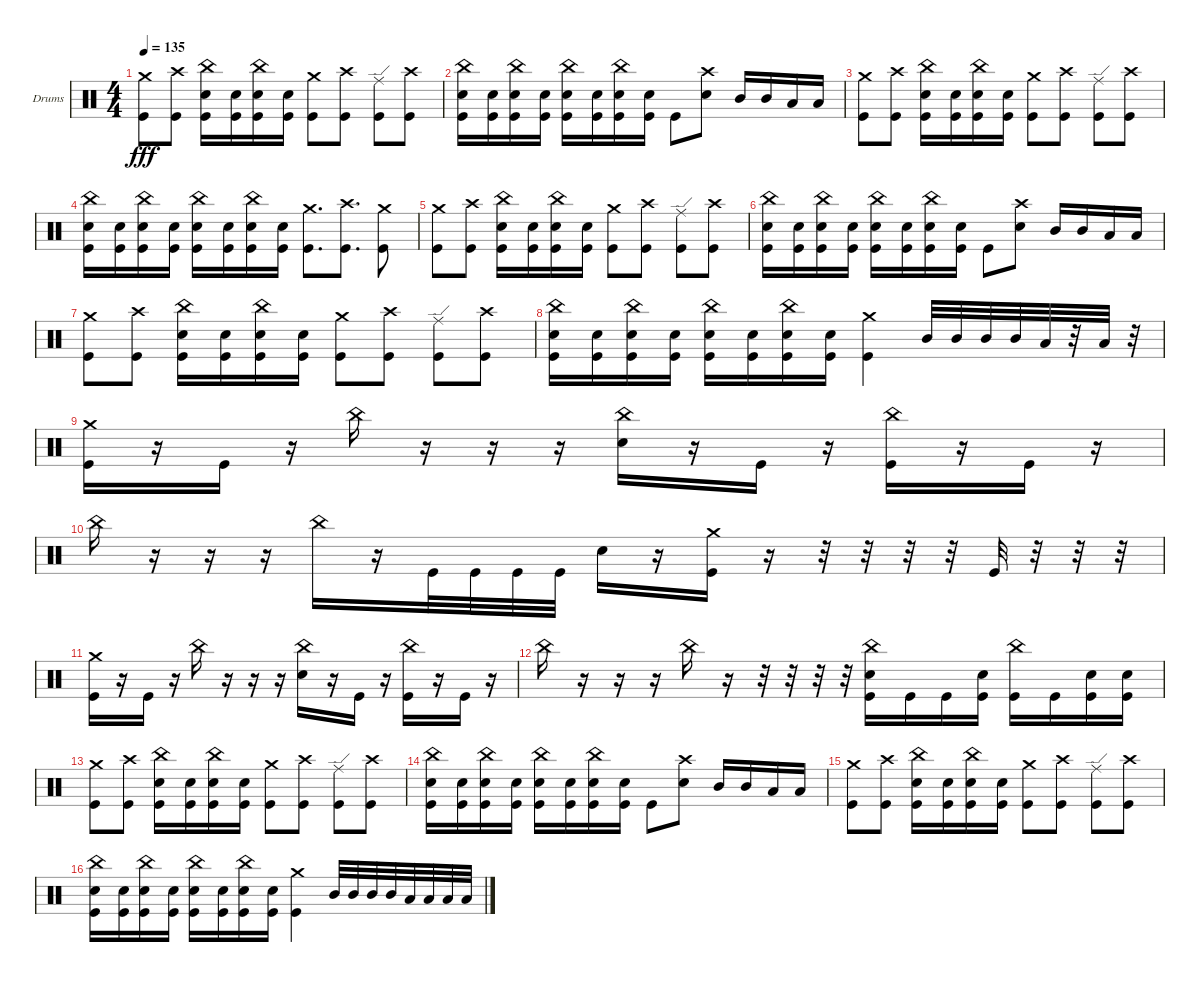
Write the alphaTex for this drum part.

\bracketExtendMode groupsimilarinstruments
\firstSystemTrackNameOrientation horizontal
\otherSystemsTrackNameOrientation horizontal
\track ("Drumkit" "Drums") {instrument percussion}
\staff {score}
\articulation defaults
\ts (4 4)
\tempo 135
\clef neutral
\ks c
("Kick (hit)" "Crash medium (hit)").8{dy fff} ("Kick (hit)" "Crash high (hit)").8 ("Kick (hit)" "Snare (hit) 2" "China (hit)").16 ("Kick (hit)" "Snare (hit) 2").16 ("Kick (hit)" "Snare (hit) 2" "China (hit)").16 ("Kick (hit)" "Snare (hit) 2").16 ("Kick (hit)" "Crash medium (hit)").8 ("Kick (hit)" "Crash high (hit)").8 ("Kick (hit)" "Ride (edge)").8 ("Kick (hit)" "Crash high (hit)").8 |
("Kick (hit)" "Snare (hit) 2" "China (hit)").16 ("Kick (hit)" "Snare (hit) 2").16 ("Kick (hit)" "Snare (hit) 2" "China (hit)").16 ("Kick (hit)" "Snare (hit) 2").16 ("Kick (hit)" "Snare (hit) 2" "China (hit)").16 ("Kick (hit)" "Snare (hit) 2").16 ("Kick (hit)" "Snare (hit) 2" "China (hit)").16 ("Kick (hit)" "Snare (hit) 2").16 "Kick (hit)".8 ("Crash high (hit)" "Snare (hit) 2").8 "Mid Tom (hit)".16 "Mid Tom (hit)".16 "Low Tom (hit)".16 "Low Tom (hit)".16 |
("Kick (hit)" "Crash medium (hit)").8 ("Kick (hit)" "Crash high (hit)").8 ("Kick (hit)" "Snare (hit) 2" "China (hit)").16 ("Kick (hit)" "Snare (hit) 2").16 ("Kick (hit)" "Snare (hit) 2" "China (hit)").16 ("Kick (hit)" "Snare (hit) 2").16 ("Kick (hit)" "Crash medium (hit)").8 ("Kick (hit)" "Crash high (hit)").8 ("Kick (hit)" "Ride (edge)").8 ("Kick (hit)" "Crash high (hit)").8 |
("Kick (hit)" "Snare (hit) 2" "China (hit)").16 ("Kick (hit)" "Snare (hit) 2").16 ("Kick (hit)" "Snare (hit) 2" "China (hit)").16 ("Kick (hit)" "Snare (hit) 2").16 ("Kick (hit)" "Snare (hit) 2" "China (hit)").16 ("Kick (hit)" "Snare (hit) 2").16 ("Kick (hit)" "Snare (hit) 2" "China (hit)").16 ("Kick (hit)" "Snare (hit) 2").16 ("Kick (hit)" "Crash medium (hit)").8{d} ("Crash high (hit)" "Kick (hit)").8{d} ("Kick (hit)" "Crash medium (hit)").8 |
("Kick (hit)" "Crash medium (hit)").8 ("Kick (hit)" "Crash high (hit)").8 ("Kick (hit)" "Snare (hit) 2" "China (hit)").16 ("Kick (hit)" "Snare (hit) 2").16 ("Kick (hit)" "Snare (hit) 2" "China (hit)").16 ("Kick (hit)" "Snare (hit) 2").16 ("Kick (hit)" "Crash medium (hit)").8 ("Kick (hit)" "Crash high (hit)").8 ("Kick (hit)" "Ride (edge)").8 ("Kick (hit)" "Crash high (hit)").8 |
("Kick (hit)" "Snare (hit) 2" "China (hit)").16 ("Kick (hit)" "Snare (hit) 2").16 ("Kick (hit)" "Snare (hit) 2" "China (hit)").16 ("Kick (hit)" "Snare (hit) 2").16 ("Kick (hit)" "Snare (hit) 2" "China (hit)").16 ("Kick (hit)" "Snare (hit) 2").16 ("Kick (hit)" "Snare (hit) 2" "China (hit)").16 ("Kick (hit)" "Snare (hit) 2").16 "Kick (hit)".8 ("Crash high (hit)" "Snare (hit) 2").8 "Mid Tom (hit)".16 "Mid Tom (hit)".16 "Low Tom (hit)".16 "Low Tom (hit)".16 |
("Kick (hit)" "Crash medium (hit)").8 ("Kick (hit)" "Crash high (hit)").8 ("Kick (hit)" "Snare (hit) 2" "China (hit)").16 ("Kick (hit)" "Snare (hit) 2").16 ("Kick (hit)" "Snare (hit) 2" "China (hit)").16 ("Kick (hit)" "Snare (hit) 2").16 ("Kick (hit)" "Crash medium (hit)").8 ("Kick (hit)" "Crash high (hit)").8 ("Kick (hit)" "Ride (edge)").8 ("Kick (hit)" "Crash high (hit)").8 |
("Kick (hit)" "Snare (hit) 2" "China (hit)").16 ("Kick (hit)" "Snare (hit) 2").16 ("Kick (hit)" "Snare (hit) 2" "China (hit)").16 ("Kick (hit)" "Snare (hit) 2").16 ("Kick (hit)" "Snare (hit) 2" "China (hit)").16 ("Kick (hit)" "Snare (hit) 2").16 ("Kick (hit)" "Snare (hit) 2" "China (hit)").16 ("Kick (hit)" "Snare (hit) 2").16 ("Kick (hit)" "Crash medium (hit)").4 "Mid Tom (hit)".32 "Mid Tom (hit)".32 "Mid Tom (hit)".32 "Mid Tom (hit)".32 "Low Tom (hit)".32 r.32 "Low Tom (hit)".32 r.32 |
("Crash medium (hit)" "Kick (hit)").16 r.16 "Kick (hit)".16 r.16 "China (hit)".16 r.16 r.16 r.16 ("China (hit)" "Snare (hit) 2").16 r.16 "Kick (hit)".16 r.16 ("Kick (hit)" "China (hit)").16 r.16 "Kick (hit)".16 r.16 |
"China (hit)".16 r.16 r.16 r.16 "China (hit)".16 r.16 "Kick (hit)".32 "Kick (hit)".32 "Kick (hit)".32 "Kick (hit)".32 "Snare (hit) 2".16 r.16 ("Kick (hit)" "Crash medium (hit)").16 r.16 r.32 r.32 r.32 r.32 "Kick (hit)".32 r.32 r.32 r.32 |
("Crash medium (hit)" "Kick (hit)").16 r.16 "Kick (hit)".16 r.16 "China (hit)".16 r.16 r.16 r.16 ("China (hit)" "Snare (hit) 2").16 r.16 "Kick (hit)".16 r.16 ("China (hit)" "Kick (hit)").16 r.16 "Kick (hit)".16 r.16 |
"China (hit)".16 r.16 r.16 r.16 "China (hit)".16 r.16 r.32 r.32 r.32 r.32 ("Kick (hit)" "Snare (hit) 2" "China (hit)").16 "Kick (hit)".16 "Kick (hit)".16 ("Kick (hit)" "Snare (hit) 2").16 ("Kick (hit)" "China (hit)").16 "Kick (hit)".16 ("Kick (hit)" "Snare (hit) 2").16 ("Kick (hit)" "Snare (hit) 2").16 |
("Kick (hit)" "Crash medium (hit)").8 ("Kick (hit)" "Crash high (hit)").8 ("Kick (hit)" "Snare (hit) 2" "China (hit)").16 ("Kick (hit)" "Snare (hit) 2").16 ("Kick (hit)" "Snare (hit) 2" "China (hit)").16 ("Kick (hit)" "Snare (hit) 2").16 ("Kick (hit)" "Crash medium (hit)").8 ("Kick (hit)" "Crash high (hit)").8 ("Kick (hit)" "Ride (edge)").8 ("Kick (hit)" "Crash high (hit)").8 |
("Kick (hit)" "Snare (hit) 2" "China (hit)").16 ("Kick (hit)" "Snare (hit) 2").16 ("Kick (hit)" "Snare (hit) 2" "China (hit)").16 ("Kick (hit)" "Snare (hit) 2").16 ("Kick (hit)" "Snare (hit) 2" "China (hit)").16 ("Kick (hit)" "Snare (hit) 2").16 ("Kick (hit)" "Snare (hit) 2" "China (hit)").16 ("Kick (hit)" "Snare (hit) 2").16 "Kick (hit)".8 ("Crash high (hit)" "Snare (hit) 2").8 "Mid Tom (hit)".16 "Mid Tom (hit)".16 "Low Tom (hit)".16 "Low Tom (hit)".16 |
("Kick (hit)" "Crash medium (hit)").8 ("Kick (hit)" "Crash high (hit)").8 ("Kick (hit)" "Snare (hit) 2" "China (hit)").16 ("Kick (hit)" "Snare (hit) 2").16 ("Kick (hit)" "Snare (hit) 2" "China (hit)").16 ("Kick (hit)" "Snare (hit) 2").16 ("Kick (hit)" "Crash medium (hit)").8 ("Kick (hit)" "Crash high (hit)").8 ("Kick (hit)" "Ride (edge)").8 ("Kick (hit)" "Crash high (hit)").8 |
("Kick (hit)" "Snare (hit) 2" "China (hit)").16 ("Kick (hit)" "Snare (hit) 2").16 ("Kick (hit)" "Snare (hit) 2" "China (hit)").16 ("Kick (hit)" "Snare (hit) 2").16 ("Kick (hit)" "Snare (hit) 2" "China (hit)").16 ("Kick (hit)" "Snare (hit) 2").16 ("Kick (hit)" "Snare (hit) 2" "China (hit)").16 ("Kick (hit)" "Snare (hit) 2").16 ("Kick (hit)" "Crash medium (hit)").4 "Mid Tom (hit)".32 "Mid Tom (hit)".32 "Mid Tom (hit)".32 "Mid Tom (hit)".32 "Low Tom (hit)".32 "Low Tom (hit)".32 "Low Tom (hit)".32 "Low Tom (hit)".32
